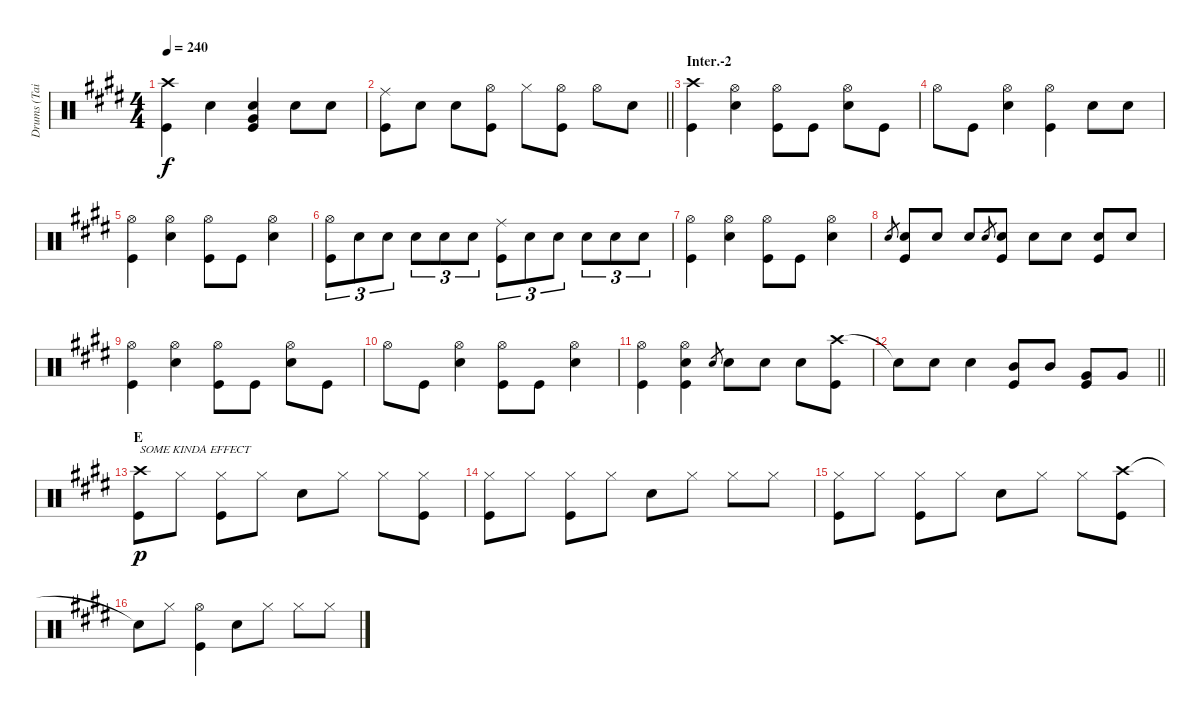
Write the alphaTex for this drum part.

\track ("Drums (Tainaka Ritsu)" "Drums (Tai") {instrument percussion}
\staff {score}
\articulation defaults
\ts (4 4)
\tempo 240
\clef neutral
\ks e
("Crash high (hit)" "Kick (hit)").4{dy f} "Snare (hit) 2".4 ("Snare (hit) 2" "Very Low Tom (hit)" "Kick (hit)").4 "Snare (hit) 2".8 "Snare (hit) 2".8 |
\barLineRight lightlight
("Ride (middle)" "Kick (hit)").8 "Snare (hit) 2".8 "Snare (hit) 2".8 ("Hi-Hat (open)" "Kick (hit)").8 "Hi-Hat (closed)".8 ("Hi-Hat (open)" "Kick (hit)").8 "Hi-Hat (open)".8 "Snare (hit) 2".8 |
\section ("" "Inter.-2")
("Crash high (hit)" "Kick (hit)").4 ("Hi-Hat (open)" "Snare (hit) 2").4 ("Hi-Hat (open)" "Kick (hit)").8 "Kick (hit)".8 ("Hi-Hat (open)" "Snare (hit) 2").8 "Kick (hit)".8 |
"Hi-Hat (open)".8 "Kick (hit)".8 ("Hi-Hat (open)" "Snare (hit) 2").4 ("Hi-Hat (open)" "Kick (hit)").4 "Snare (hit) 2".8 "Snare (hit) 2".8 |
("Hi-Hat (open)" "Kick (hit)").4 ("Hi-Hat (open)" "Snare (hit) 2").4 ("Hi-Hat (open)" "Kick (hit)").8 "Kick (hit)".8 ("Hi-Hat (open)" "Snare (hit) 2").4 |
("Hi-Hat (open)" "Kick (hit)").8{tu (3 2)} "Snare (hit) 2".8{tu (3 2)} "Snare (hit) 2".8{tu (3 2)} "Snare (hit) 2".8{tu (3 2)} "Snare (hit) 2".8{tu (3 2)} "Snare (hit) 2".8{tu (3 2)} ("Ride (middle)" "Kick (hit)").8{tu (3 2)} "Snare (hit) 2".8{tu (3 2)} "Snare (hit) 2".8{tu (3 2)} "Snare (hit) 2".8{tu (3 2)} "Snare (hit) 2".8{tu (3 2)} "Snare (hit) 2".8{tu (3 2)} |
("Hi-Hat (open)" "Kick (hit)").4 ("Hi-Hat (open)" "Snare (hit) 2").4 ("Hi-Hat (open)" "Kick (hit)").8 "Kick (hit)".8 ("Hi-Hat (open)" "Snare (hit) 2").4 |
"Snare (hit) 2".8{gr} ("Snare (hit) 2" "Kick (hit)").8 "Snare (hit) 2".8 "Snare (hit) 2".8 "Snare (hit) 2".8{gr} ("Snare (hit) 2" "Kick (hit)").8 "Snare (hit) 2".8 "Snare (hit) 2".8 ("Snare (hit) 2" "Kick (hit)").8 "Snare (hit) 2".8 |
("Hi-Hat (open)" "Kick (hit)").4 ("Hi-Hat (open)" "Snare (hit) 2").4 ("Hi-Hat (open)" "Kick (hit)").8 "Kick (hit)".8 ("Hi-Hat (open)" "Snare (hit) 2").8 "Kick (hit)".8 |
"Hi-Hat (open)".8 "Kick (hit)".8 ("Hi-Hat (open)" "Snare (hit) 2").4 ("Hi-Hat (open)" "Kick (hit)").8 "Kick (hit)".8 ("Hi-Hat (open)" "Snare (hit) 2").4 |
("Hi-Hat (open)" "Kick (hit)").4 ("Hi-Hat (open)" "Snare (hit) 2" "Kick (hit)").4 "Snare (hit) 2".8{gr} "Snare (hit) 2".8 "Snare (hit) 2".8 "Snare (hit) 2".8 ("Crash high (hit)" "Kick (hit)").8 |
\barLineRight lightlight "Snare (hit)"{t}.8 "Snare (hit) 2".8 "Snare (hit) 2".4
("Mid Tom (hit)" "Kick (hit)").8 "Mid Tom (hit)".8 ("Very Low Tom (hit)" "Kick (hit)").8 "Very Low Tom (hit)".8 |
\section ("" "E")
("Crash high (hit)" "Kick (hit)").8{txt "SOME KINDA EFFECT" dy p} "Hi-Hat (closed)".8 ("Hi-Hat (closed)" "Kick (hit)").8 "Hi-Hat (closed)".8 "Snare (hit) 2".8 "Hi-Hat (closed)".8 "Hi-Hat (closed)".8 ("Hi-Hat (closed)" "Kick (hit)").8 |
("Hi-Hat (closed)" "Kick (hit)").8 "Hi-Hat (closed)".8 ("Hi-Hat (closed)" "Kick (hit)").8 "Hi-Hat (closed)".8 "Snare (hit) 2".8 "Hi-Hat (closed)".8 "Hi-Hat (closed)".8 "Hi-Hat (closed)".8 |
("Hi-Hat (closed)" "Kick (hit)").8 "Hi-Hat (closed)".8 ("Hi-Hat (closed)" "Kick (hit)").8 "Hi-Hat (closed)".8 "Snare (hit) 2".8 "Hi-Hat (closed)".8 "Hi-Hat (closed)".8 ("Crash high (hit)" "Kick (hit)").8 |
"Snare (hit)"{t}.8 "Hi-Hat (closed)".8 ("Hi-Hat (open)" "Kick (hit)").4 "Snare (hit) 2".8 "Hi-Hat (closed)".8 "Hi-Hat (closed)".8 "Hi-Hat (closed)".8
